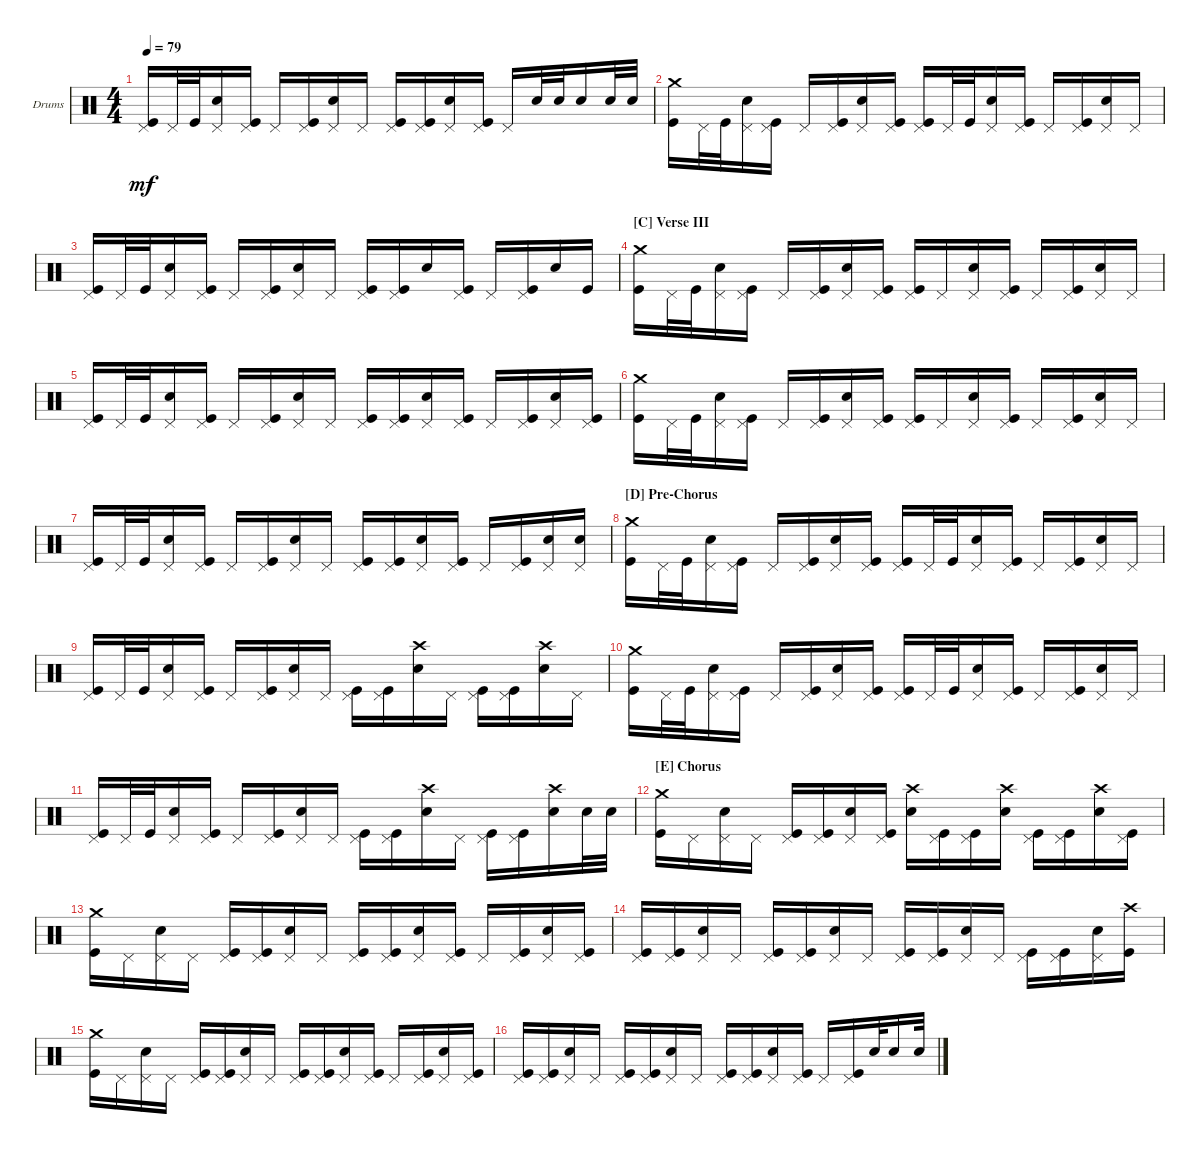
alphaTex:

\defaultSystemsLayout 4
\bracketExtendMode groupsimilarinstruments
\firstSystemTrackNameOrientation horizontal
\otherSystemsTrackNameOrientation horizontal
\track ("Drums" "Drums") {instrument percussion}
\staff {score}
\articulation defaults
\ts (4 4)
\tempo 79
\clef neutral
\ks c
("Kick (hit)" "Pedal Hi-Hat (hit)").16{dy mf} "Pedal Hi-Hat (hit)".32 "Kick (hit)".32{beam merge} ("Pedal Hi-Hat (hit)" "Snare (hit) 2").16 ("Pedal Hi-Hat (hit)" "Kick (hit)").16 "Pedal Hi-Hat (hit)".16 ("Pedal Hi-Hat (hit)" "Kick (hit)").16{beam merge} ("Pedal Hi-Hat (hit)" "Snare (hit) 2").16 "Pedal Hi-Hat (hit)".16 ("Kick (hit)" "Pedal Hi-Hat (hit)").16 ("Pedal Hi-Hat (hit)" "Kick (hit)").16{beam merge} ("Snare (hit) 2" "Pedal Hi-Hat (hit)").16 ("Pedal Hi-Hat (hit)" "Kick (hit)").16 "Pedal Hi-Hat (hit)".16 "Snare (hit) 2".32{beam merge} "Snare (hit) 2".32{beam merge} "Snare (hit) 2".16 "Snare (hit) 2".32 "Snare (hit) 2".32 |
("Kick (hit)" "Crash medium (hit)").16 "Pedal Hi-Hat (hit)".32 "Kick (hit)".32{beam merge} ("Pedal Hi-Hat (hit)" "Snare (hit) 2").16 ("Pedal Hi-Hat (hit)" "Kick (hit)").16 "Pedal Hi-Hat (hit)".16 ("Pedal Hi-Hat (hit)" "Kick (hit)").16{beam merge} ("Pedal Hi-Hat (hit)" "Snare (hit) 2").16 ("Pedal Hi-Hat (hit)" "Kick (hit)").16 ("Kick (hit)" "Pedal Hi-Hat (hit)").16 "Pedal Hi-Hat (hit)".32 "Kick (hit)".32{beam merge} ("Pedal Hi-Hat (hit)" "Snare (hit) 2").16 ("Pedal Hi-Hat (hit)" "Kick (hit)").16 "Pedal Hi-Hat (hit)".16 ("Pedal Hi-Hat (hit)" "Kick (hit)").16{beam merge} ("Pedal Hi-Hat (hit)" "Snare (hit) 2").16 "Pedal Hi-Hat (hit)".16 |
("Kick (hit)" "Pedal Hi-Hat (hit)").16 "Pedal Hi-Hat (hit)".32 "Kick (hit)".32{beam merge} ("Pedal Hi-Hat (hit)" "Snare (hit) 2").16 ("Pedal Hi-Hat (hit)" "Kick (hit)").16 "Pedal Hi-Hat (hit)".16 ("Pedal Hi-Hat (hit)" "Kick (hit)").16{beam merge} ("Pedal Hi-Hat (hit)" "Snare (hit) 2").16 "Pedal Hi-Hat (hit)".16 ("Kick (hit)" "Pedal Hi-Hat (hit)").16 ("Pedal Hi-Hat (hit)" "Kick (hit)").16{beam merge} "Snare (hit) 2".16 ("Pedal Hi-Hat (hit)" "Kick (hit)").16 "Pedal Hi-Hat (hit)".16 ("Pedal Hi-Hat (hit)" "Kick (hit)").16{beam merge} "Snare (hit) 2".16 "Kick (hit)".16 |
\section ("C" "Verse III")
("Kick (hit)" "Crash medium (hit)").16 "Pedal Hi-Hat (hit)".32 "Kick (hit)".32{beam merge} ("Pedal Hi-Hat (hit)" "Snare (hit) 2").16 ("Pedal Hi-Hat (hit)" "Kick (hit)").16 "Pedal Hi-Hat (hit)".16 ("Pedal Hi-Hat (hit)" "Kick (hit)").16{beam merge} ("Pedal Hi-Hat (hit)" "Snare (hit) 2").16 ("Pedal Hi-Hat (hit)" "Kick (hit)").16 ("Kick (hit)" "Pedal Hi-Hat (hit)").16 "Pedal Hi-Hat (hit)".16{beam merge} ("Pedal Hi-Hat (hit)" "Snare (hit) 2").16 ("Pedal Hi-Hat (hit)" "Kick (hit)").16 "Pedal Hi-Hat (hit)".16 ("Pedal Hi-Hat (hit)" "Kick (hit)").16{beam merge} ("Pedal Hi-Hat (hit)" "Snare (hit) 2").16 "Pedal Hi-Hat (hit)".16 |
("Kick (hit)" "Pedal Hi-Hat (hit)").16 "Pedal Hi-Hat (hit)".32 "Kick (hit)".32{beam merge} ("Pedal Hi-Hat (hit)" "Snare (hit) 2").16 ("Pedal Hi-Hat (hit)" "Kick (hit)").16 "Pedal Hi-Hat (hit)".16 ("Pedal Hi-Hat (hit)" "Kick (hit)").16{beam merge} ("Pedal Hi-Hat (hit)" "Snare (hit) 2").16 "Pedal Hi-Hat (hit)".16 ("Kick (hit)" "Pedal Hi-Hat (hit)").16 ("Pedal Hi-Hat (hit)" "Kick (hit)").16{beam merge} ("Pedal Hi-Hat (hit)" "Snare (hit) 2").16 ("Pedal Hi-Hat (hit)" "Kick (hit)").16 "Pedal Hi-Hat (hit)".16 ("Pedal Hi-Hat (hit)" "Kick (hit)").16{beam merge} ("Pedal Hi-Hat (hit)" "Snare (hit) 2").16 ("Pedal Hi-Hat (hit)" "Kick (hit)").16 |
("Kick (hit)" "Crash medium (hit)").16 "Pedal Hi-Hat (hit)".32 "Kick (hit)".32{beam merge} ("Pedal Hi-Hat (hit)" "Snare (hit) 2").16 ("Pedal Hi-Hat (hit)" "Kick (hit)").16 "Pedal Hi-Hat (hit)".16 ("Pedal Hi-Hat (hit)" "Kick (hit)").16{beam merge} ("Pedal Hi-Hat (hit)" "Snare (hit) 2").16 ("Pedal Hi-Hat (hit)" "Kick (hit)").16 ("Kick (hit)" "Pedal Hi-Hat (hit)").16 "Pedal Hi-Hat (hit)".16{beam merge} ("Pedal Hi-Hat (hit)" "Snare (hit) 2").16 ("Pedal Hi-Hat (hit)" "Kick (hit)").16 "Pedal Hi-Hat (hit)".16 ("Pedal Hi-Hat (hit)" "Kick (hit)").16{beam merge} ("Pedal Hi-Hat (hit)" "Snare (hit) 2").16 "Pedal Hi-Hat (hit)".16 |
("Kick (hit)" "Pedal Hi-Hat (hit)").16 "Pedal Hi-Hat (hit)".32 "Kick (hit)".32{beam merge} ("Pedal Hi-Hat (hit)" "Snare (hit) 2").16 ("Pedal Hi-Hat (hit)" "Kick (hit)").16 "Pedal Hi-Hat (hit)".16 ("Pedal Hi-Hat (hit)" "Kick (hit)").16{beam merge} ("Pedal Hi-Hat (hit)" "Snare (hit) 2").16 "Pedal Hi-Hat (hit)".16 ("Kick (hit)" "Pedal Hi-Hat (hit)").16 ("Pedal Hi-Hat (hit)" "Kick (hit)").16{beam merge} ("Pedal Hi-Hat (hit)" "Snare (hit) 2").16 ("Pedal Hi-Hat (hit)" "Kick (hit)").16 "Pedal Hi-Hat (hit)".16 ("Pedal Hi-Hat (hit)" "Kick (hit)").16{beam merge} ("Pedal Hi-Hat (hit)" "Snare (hit) 2").16 ("Pedal Hi-Hat (hit)" "Snare (hit) 2").16 |
\section ("D" "Pre-Chorus")
("Kick (hit)" "Crash medium (hit)").16 "Pedal Hi-Hat (hit)".32 "Kick (hit)".32{beam merge} ("Pedal Hi-Hat (hit)" "Snare (hit) 2").16 ("Pedal Hi-Hat (hit)" "Kick (hit)").16 "Pedal Hi-Hat (hit)".16 ("Pedal Hi-Hat (hit)" "Kick (hit)").16{beam merge} ("Pedal Hi-Hat (hit)" "Snare (hit) 2").16 ("Pedal Hi-Hat (hit)" "Kick (hit)").16 ("Kick (hit)" "Pedal Hi-Hat (hit)").16 "Pedal Hi-Hat (hit)".32 "Kick (hit)".32{beam merge} ("Pedal Hi-Hat (hit)" "Snare (hit) 2").16 ("Pedal Hi-Hat (hit)" "Kick (hit)").16 "Pedal Hi-Hat (hit)".16 ("Pedal Hi-Hat (hit)" "Kick (hit)").16{beam merge} ("Pedal Hi-Hat (hit)" "Snare (hit) 2").16 "Pedal Hi-Hat (hit)".16 |
("Kick (hit)" "Pedal Hi-Hat (hit)").16 "Pedal Hi-Hat (hit)".32 "Kick (hit)".32 ("Pedal Hi-Hat (hit)" "Snare (hit) 2").16 ("Pedal Hi-Hat (hit)" "Kick (hit)").16 "Pedal Hi-Hat (hit)".16 ("Pedal Hi-Hat (hit)" "Kick (hit)").16 ("Pedal Hi-Hat (hit)" "Snare (hit) 2").16 "Pedal Hi-Hat (hit)".16 ("Kick (hit)" "Pedal Hi-Hat (hit)").16 ("Pedal Hi-Hat (hit)" "Kick (hit)").16{beam merge} ("Snare (hit) 2" "Crash high (hit)").16 "Pedal Hi-Hat (hit)".16 ("Pedal Hi-Hat (hit)" "Kick (hit)").16 ("Pedal Hi-Hat (hit)" "Kick (hit)").16{beam merge} ("Snare (hit) 2" "Crash high (hit)").16 "Pedal Hi-Hat (hit)".16 |
("Kick (hit)" "Crash medium (hit)").16 "Pedal Hi-Hat (hit)".32 "Kick (hit)".32{beam merge} ("Pedal Hi-Hat (hit)" "Snare (hit) 2").16 ("Pedal Hi-Hat (hit)" "Kick (hit)").16 "Pedal Hi-Hat (hit)".16 ("Pedal Hi-Hat (hit)" "Kick (hit)").16{beam merge} ("Pedal Hi-Hat (hit)" "Snare (hit) 2").16 ("Pedal Hi-Hat (hit)" "Kick (hit)").16 ("Kick (hit)" "Pedal Hi-Hat (hit)").16 "Pedal Hi-Hat (hit)".32 "Kick (hit)".32{beam merge} ("Pedal Hi-Hat (hit)" "Snare (hit) 2").16 ("Pedal Hi-Hat (hit)" "Kick (hit)").16 "Pedal Hi-Hat (hit)".16 ("Pedal Hi-Hat (hit)" "Kick (hit)").16{beam merge} ("Pedal Hi-Hat (hit)" "Snare (hit) 2").16 "Pedal Hi-Hat (hit)".16 |
("Kick (hit)" "Pedal Hi-Hat (hit)").16 "Pedal Hi-Hat (hit)".32 "Kick (hit)".32 ("Pedal Hi-Hat (hit)" "Snare (hit) 2").16 ("Pedal Hi-Hat (hit)" "Kick (hit)").16 "Pedal Hi-Hat (hit)".16 ("Pedal Hi-Hat (hit)" "Kick (hit)").16 ("Pedal Hi-Hat (hit)" "Snare (hit) 2").16 "Pedal Hi-Hat (hit)".16 ("Kick (hit)" "Pedal Hi-Hat (hit)").16 ("Pedal Hi-Hat (hit)" "Kick (hit)").16{beam merge} ("Snare (hit) 2" "Crash high (hit)").16 "Pedal Hi-Hat (hit)".16 ("Pedal Hi-Hat (hit)" "Kick (hit)").16 ("Pedal Hi-Hat (hit)" "Kick (hit)").16{beam merge} ("Snare (hit) 2" "Crash high (hit)").16 "Snare (hit) 2".32 "Snare (hit) 2".32 |
\section ("E" "Chorus")
("Kick (hit)" "Crash medium (hit)").16 "Pedal Hi-Hat (hit)".16{beam merge} ("Pedal Hi-Hat (hit)" "Snare (hit) 2").16 "Pedal Hi-Hat (hit)".16 ("Pedal Hi-Hat (hit)" "Kick (hit)").16 ("Pedal Hi-Hat (hit)" "Kick (hit)").16{beam merge} ("Pedal Hi-Hat (hit)" "Snare (hit) 2").16 ("Pedal Hi-Hat (hit)" "Kick (hit)").16 ("Snare (hit) 2" "Crash high (hit)").16 ("Pedal Hi-Hat (hit)" "Kick (hit)").16{beam merge} ("Pedal Hi-Hat (hit)" "Kick (hit)").16 ("Snare (hit) 2" "Crash high (hit)").16 ("Pedal Hi-Hat (hit)" "Kick (hit)").16 ("Pedal Hi-Hat (hit)" "Kick (hit)").16{beam merge} ("Snare (hit) 2" "Crash high (hit)").16 ("Pedal Hi-Hat (hit)" "Kick (hit)").16 |
("Kick (hit)" "Crash medium (hit)").16 "Pedal Hi-Hat (hit)".16{beam merge} ("Pedal Hi-Hat (hit)" "Snare (hit) 2").16 "Pedal Hi-Hat (hit)".16 ("Pedal Hi-Hat (hit)" "Kick (hit)").16 ("Pedal Hi-Hat (hit)" "Kick (hit)").16{beam merge} ("Pedal Hi-Hat (hit)" "Snare (hit) 2").16 "Pedal Hi-Hat (hit)".16 ("Kick (hit)" "Pedal Hi-Hat (hit)").16 ("Pedal Hi-Hat (hit)" "Kick (hit)").16{beam merge} ("Pedal Hi-Hat (hit)" "Snare (hit) 2").16 ("Pedal Hi-Hat (hit)" "Kick (hit)").16 "Pedal Hi-Hat (hit)".16 ("Pedal Hi-Hat (hit)" "Kick (hit)").16{beam merge} ("Pedal Hi-Hat (hit)" "Snare (hit) 2").16 ("Pedal Hi-Hat (hit)" "Kick (hit)").16 |
("Kick (hit)" "Pedal Hi-Hat (hit)").16 ("Pedal Hi-Hat (hit)" "Kick (hit)").16{beam merge} ("Pedal Hi-Hat (hit)" "Snare (hit) 2").16 "Pedal Hi-Hat (hit)".16 ("Pedal Hi-Hat (hit)" "Kick (hit)").16 ("Pedal Hi-Hat (hit)" "Kick (hit)").16{beam merge} ("Pedal Hi-Hat (hit)" "Snare (hit) 2").16 "Pedal Hi-Hat (hit)".16 ("Kick (hit)" "Pedal Hi-Hat (hit)").16 ("Pedal Hi-Hat (hit)" "Kick (hit)").16{beam merge} ("Pedal Hi-Hat (hit)" "Snare (hit) 2").16 "Pedal Hi-Hat (hit)".16 ("Pedal Hi-Hat (hit)" "Kick (hit)").16 ("Pedal Hi-Hat (hit)" "Kick (hit)").16{beam merge} ("Pedal Hi-Hat (hit)" "Snare (hit) 2").16 ("Kick (hit)" "Crash high (hit)").16 |
("Kick (hit)" "Crash medium (hit)").16 "Pedal Hi-Hat (hit)".16{beam merge} ("Pedal Hi-Hat (hit)" "Snare (hit) 2").16 "Pedal Hi-Hat (hit)".16 ("Pedal Hi-Hat (hit)" "Kick (hit)").16 ("Pedal Hi-Hat (hit)" "Kick (hit)").16{beam merge} ("Pedal Hi-Hat (hit)" "Snare (hit) 2").16 "Pedal Hi-Hat (hit)".16 ("Kick (hit)" "Pedal Hi-Hat (hit)").16 ("Pedal Hi-Hat (hit)" "Kick (hit)").16{beam merge} ("Pedal Hi-Hat (hit)" "Snare (hit) 2").16 ("Pedal Hi-Hat (hit)" "Kick (hit)").16 "Pedal Hi-Hat (hit)".16 ("Pedal Hi-Hat (hit)" "Kick (hit)").16{beam merge} ("Pedal Hi-Hat (hit)" "Snare (hit) 2").16 ("Pedal Hi-Hat (hit)" "Kick (hit)").16 |
("Kick (hit)" "Pedal Hi-Hat (hit)").16 ("Pedal Hi-Hat (hit)" "Kick (hit)").16{beam merge} ("Pedal Hi-Hat (hit)" "Snare (hit) 2").16 "Pedal Hi-Hat (hit)".16 ("Pedal Hi-Hat (hit)" "Kick (hit)").16 ("Pedal Hi-Hat (hit)" "Kick (hit)").16{beam merge} ("Pedal Hi-Hat (hit)" "Snare (hit) 2").16 "Pedal Hi-Hat (hit)".16 ("Kick (hit)" "Pedal Hi-Hat (hit)").16 ("Pedal Hi-Hat (hit)" "Kick (hit)").16{beam merge} ("Pedal Hi-Hat (hit)" "Snare (hit) 2").16 ("Pedal Hi-Hat (hit)" "Kick (hit)").16 "Pedal Hi-Hat (hit)".16 ("Pedal Hi-Hat (hit)" "Kick (hit)").16{beam merge} "Snare (hit) 2".32 "Snare (hit) 2".16 "Snare (hit) 2".32
